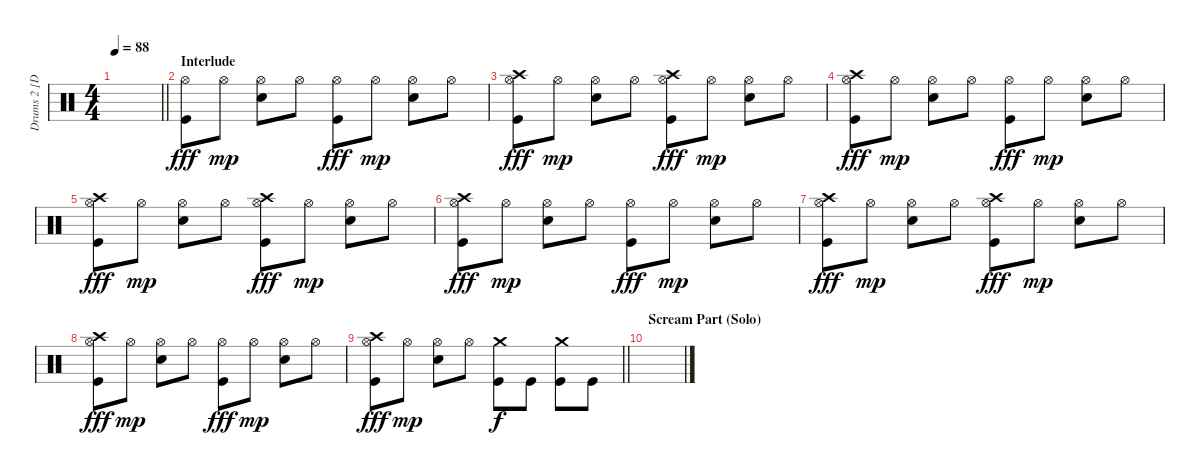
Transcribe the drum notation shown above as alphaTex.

\track ("Drums 2 [Doom]" "Drums 2 [D") {instrument percussion}
\staff {score}
\articulation defaults
\ts (4 4)
\tempo 88
\clef neutral
\barLineRight lightlight
\ks c
|
\section ("" "Interlude")
("Hi-Hat (open)" "Kick (hit)").8{dy fff} "Hi-Hat (open)".8{dy mp} ("Hi-Hat (open)" "Electric Snare (hit)").8 "Hi-Hat (open)".8 ("Hi-Hat (open)" "Kick (hit)").8{dy fff} "Hi-Hat (open)".8{dy mp} ("Hi-Hat (open)" "Electric Snare (hit)").8 "Hi-Hat (open)".8 |
("Crash high (hit)" "Hi-Hat (open)" "Kick (hit)").8{dy fff} "Hi-Hat (open)".8{dy mp} ("Hi-Hat (open)" "Electric Snare (hit)").8 "Hi-Hat (open)".8 ("Crash high (hit)" "Hi-Hat (open)" "Kick (hit)").8{dy fff} "Hi-Hat (open)".8{dy mp} ("Hi-Hat (open)" "Electric Snare (hit)").8 "Hi-Hat (open)".8 |
("Crash high (hit)" "Hi-Hat (open)" "Kick (hit)").8{dy fff} "Hi-Hat (open)".8{dy mp} ("Hi-Hat (open)" "Electric Snare (hit)").8 "Hi-Hat (open)".8 ("Hi-Hat (open)" "Kick (hit)").8{dy fff} "Hi-Hat (open)".8{dy mp} ("Hi-Hat (open)" "Electric Snare (hit)").8 "Hi-Hat (open)".8 |
("Crash high (hit)" "Hi-Hat (open)" "Kick (hit)").8{dy fff} "Hi-Hat (open)".8{dy mp} ("Hi-Hat (open)" "Electric Snare (hit)").8 "Hi-Hat (open)".8 ("Crash high (hit)" "Hi-Hat (open)" "Kick (hit)").8{dy fff} "Hi-Hat (open)".8{dy mp} ("Hi-Hat (open)" "Electric Snare (hit)").8 "Hi-Hat (open)".8 |
("Crash high (hit)" "Hi-Hat (open)" "Kick (hit)").8{dy fff} "Hi-Hat (open)".8{dy mp} ("Hi-Hat (open)" "Electric Snare (hit)").8 "Hi-Hat (open)".8 ("Hi-Hat (open)" "Kick (hit)").8{dy fff} "Hi-Hat (open)".8{dy mp} ("Hi-Hat (open)" "Electric Snare (hit)").8 "Hi-Hat (open)".8 |
("Crash high (hit)" "Hi-Hat (open)" "Kick (hit)").8{dy fff} "Hi-Hat (open)".8{dy mp} ("Hi-Hat (open)" "Electric Snare (hit)").8 "Hi-Hat (open)".8 ("Crash high (hit)" "Hi-Hat (open)" "Kick (hit)").8{dy fff} "Hi-Hat (open)".8{dy mp} ("Hi-Hat (open)" "Electric Snare (hit)").8 "Hi-Hat (open)".8 |
("Crash high (hit)" "Hi-Hat (open)" "Kick (hit)").8{dy fff} "Hi-Hat (open)".8{dy mp} ("Hi-Hat (open)" "Electric Snare (hit)").8 "Hi-Hat (open)".8 ("Hi-Hat (open)" "Kick (hit)").8{dy fff} "Hi-Hat (open)".8{dy mp} ("Hi-Hat (open)" "Electric Snare (hit)").8 "Hi-Hat (open)".8 |
\barLineRight lightlight
("Crash high (hit)" "Hi-Hat (open)" "Kick (hit)").8{dy fff} "Hi-Hat (open)".8{dy mp} ("Hi-Hat (open)" "Electric Snare (hit)").8 "Hi-Hat (open)".8 ("Crash medium (hit)" "Kick (hit)").8{dy f} "Kick (hit)".8 ("Crash medium (hit)" "Kick (hit)").8 "Kick (hit)".8 |
\section ("" "Scream Part (Solo)")
